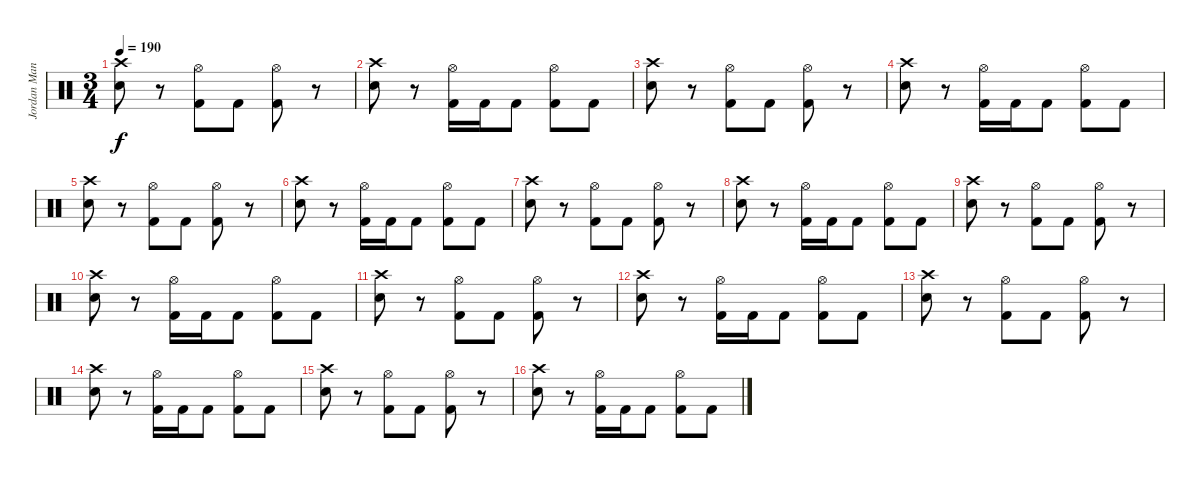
\track ("Jordan Mancino" "Jordan Man") {instrument percussion}
\staff {score}
\articulation defaults
\ts (3 4)
\tempo 190
\clef neutral
\ks c
("Crash high (hit)" "Electric Snare (hit)").8{dy f} r.8 ("Hi-Hat (open)" "Kick (hit) 2").8 "Kick (hit) 2".8 ("Hi-Hat (open)" "Kick (hit) 2").8 r.8 |
("Crash high (hit)" "Electric Snare (hit)").8 r.8 ("Hi-Hat (open)" "Kick (hit) 2").16 "Kick (hit) 2".16 "Kick (hit) 2".8 ("Hi-Hat (open)" "Kick (hit) 2").8 "Kick (hit) 2".8 |
("Crash high (hit)" "Electric Snare (hit)").8 r.8 ("Hi-Hat (open)" "Kick (hit) 2").8 "Kick (hit) 2".8 ("Hi-Hat (open)" "Kick (hit) 2").8 r.8 |
("Crash high (hit)" "Electric Snare (hit)").8 r.8 ("Hi-Hat (open)" "Kick (hit) 2").16 "Kick (hit) 2".16 "Kick (hit) 2".8 ("Hi-Hat (open)" "Kick (hit) 2").8 "Kick (hit) 2".8 |
("Crash high (hit)" "Electric Snare (hit)").8 r.8 ("Hi-Hat (open)" "Kick (hit) 2").8 "Kick (hit) 2".8 ("Hi-Hat (open)" "Kick (hit) 2").8 r.8 |
("Crash high (hit)" "Electric Snare (hit)").8 r.8 ("Hi-Hat (open)" "Kick (hit) 2").16 "Kick (hit) 2".16 "Kick (hit) 2".8 ("Hi-Hat (open)" "Kick (hit) 2").8 "Kick (hit) 2".8 |
("Crash high (hit)" "Electric Snare (hit)").8 r.8 ("Hi-Hat (open)" "Kick (hit) 2").8 "Kick (hit) 2".8 ("Hi-Hat (open)" "Kick (hit) 2").8 r.8 |
("Crash high (hit)" "Electric Snare (hit)").8 r.8 ("Hi-Hat (open)" "Kick (hit) 2").16 "Kick (hit) 2".16 "Kick (hit) 2".8 ("Hi-Hat (open)" "Kick (hit) 2").8 "Kick (hit) 2".8 |
("Crash high (hit)" "Electric Snare (hit)").8 r.8 ("Hi-Hat (open)" "Kick (hit) 2").8 "Kick (hit) 2".8 ("Hi-Hat (open)" "Kick (hit) 2").8 r.8 |
("Crash high (hit)" "Electric Snare (hit)").8 r.8 ("Hi-Hat (open)" "Kick (hit) 2").16 "Kick (hit) 2".16 "Kick (hit) 2".8 ("Hi-Hat (open)" "Kick (hit) 2").8 "Kick (hit) 2".8 |
("Crash high (hit)" "Electric Snare (hit)").8 r.8 ("Hi-Hat (open)" "Kick (hit) 2").8 "Kick (hit) 2".8 ("Hi-Hat (open)" "Kick (hit) 2").8 r.8 |
("Crash high (hit)" "Electric Snare (hit)").8 r.8 ("Hi-Hat (open)" "Kick (hit) 2").16 "Kick (hit) 2".16 "Kick (hit) 2".8 ("Hi-Hat (open)" "Kick (hit) 2").8 "Kick (hit) 2".8 |
("Crash high (hit)" "Electric Snare (hit)").8 r.8 ("Hi-Hat (open)" "Kick (hit) 2").8 "Kick (hit) 2".8 ("Hi-Hat (open)" "Kick (hit) 2").8 r.8 |
("Crash high (hit)" "Electric Snare (hit)").8 r.8 ("Hi-Hat (open)" "Kick (hit) 2").16 "Kick (hit) 2".16 "Kick (hit) 2".8 ("Hi-Hat (open)" "Kick (hit) 2").8 "Kick (hit) 2".8 |
("Crash high (hit)" "Electric Snare (hit)").8 r.8 ("Hi-Hat (open)" "Kick (hit) 2").8 "Kick (hit) 2".8 ("Hi-Hat (open)" "Kick (hit) 2").8 r.8 |
("Crash high (hit)" "Electric Snare (hit)").8 r.8 ("Hi-Hat (open)" "Kick (hit) 2").16 "Kick (hit) 2".16 "Kick (hit) 2".8 ("Hi-Hat (open)" "Kick (hit) 2").8 "Kick (hit) 2".8
